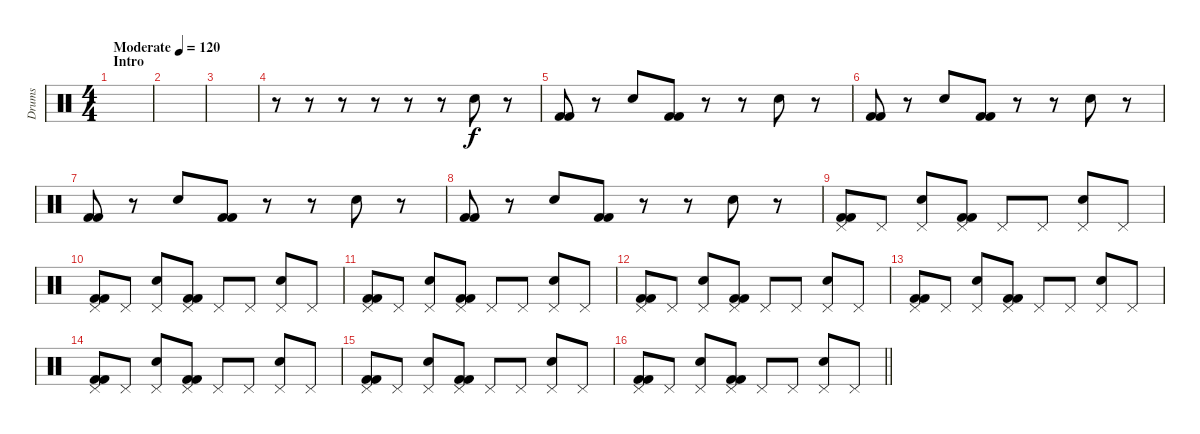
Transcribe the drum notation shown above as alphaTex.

\track ("Drums" "Drums") {instrument percussion}
\staff {score}
\articulation defaults
\ts (4 4)
\section ("" "Intro")
\tempo (120 "Moderate")
\clef neutral
\ks c
|
|
|
r.8 r.8 r.8 r.8 r.8 r.8 "Electric Snare (hit)".8 r.8 |
("Kick (hit) 2" "Kick (hit) 2").8 r.8 "Electric Snare (hit)".8 ("Kick (hit) 2" "Kick (hit) 2").8 r.8 r.8 "Electric Snare (hit)".8 r.8 |
("Kick (hit) 2" "Kick (hit) 2").8 r.8 "Electric Snare (hit)".8 ("Kick (hit) 2" "Kick (hit) 2").8 r.8 r.8 "Electric Snare (hit)".8 r.8 |
("Kick (hit) 2" "Kick (hit) 2").8 r.8 "Electric Snare (hit)".8 ("Kick (hit) 2" "Kick (hit) 2").8 r.8 r.8 "Electric Snare (hit)".8 r.8 |
("Kick (hit) 2" "Kick (hit) 2").8 r.8 "Electric Snare (hit)".8 ("Kick (hit) 2" "Kick (hit) 2").8 r.8 r.8 "Electric Snare (hit)".8 r.8 |
("Pedal Hi-Hat (hit)" "Kick (hit) 2" "Kick (hit) 2").8 "Pedal Hi-Hat (hit)".8 ("Electric Snare (hit)" "Pedal Hi-Hat (hit)").8 ("Pedal Hi-Hat (hit)" "Kick (hit) 2" "Kick (hit) 2").8 "Pedal Hi-Hat (hit)".8 "Pedal Hi-Hat (hit)".8 ("Electric Snare (hit)" "Pedal Hi-Hat (hit)").8 "Pedal Hi-Hat (hit)".8 |
("Pedal Hi-Hat (hit)" "Kick (hit) 2" "Kick (hit) 2").8 "Pedal Hi-Hat (hit)".8 ("Electric Snare (hit)" "Pedal Hi-Hat (hit)").8 ("Pedal Hi-Hat (hit)" "Kick (hit) 2" "Kick (hit) 2").8 "Pedal Hi-Hat (hit)".8 "Pedal Hi-Hat (hit)".8 ("Electric Snare (hit)" "Pedal Hi-Hat (hit)").8 "Pedal Hi-Hat (hit)".8 |
("Pedal Hi-Hat (hit)" "Kick (hit) 2" "Kick (hit) 2").8 "Pedal Hi-Hat (hit)".8 ("Electric Snare (hit)" "Pedal Hi-Hat (hit)").8 ("Pedal Hi-Hat (hit)" "Kick (hit) 2" "Kick (hit) 2").8 "Pedal Hi-Hat (hit)".8 "Pedal Hi-Hat (hit)".8 ("Electric Snare (hit)" "Pedal Hi-Hat (hit)").8 "Pedal Hi-Hat (hit)".8 |
("Pedal Hi-Hat (hit)" "Kick (hit) 2" "Kick (hit) 2").8 "Pedal Hi-Hat (hit)".8 ("Electric Snare (hit)" "Pedal Hi-Hat (hit)").8 ("Pedal Hi-Hat (hit)" "Kick (hit) 2" "Kick (hit) 2").8 "Pedal Hi-Hat (hit)".8 "Pedal Hi-Hat (hit)".8 ("Electric Snare (hit)" "Pedal Hi-Hat (hit)").8 "Pedal Hi-Hat (hit)".8 |
("Pedal Hi-Hat (hit)" "Kick (hit) 2" "Kick (hit) 2").8 "Pedal Hi-Hat (hit)".8 ("Electric Snare (hit)" "Pedal Hi-Hat (hit)").8 ("Pedal Hi-Hat (hit)" "Kick (hit) 2" "Kick (hit) 2").8 "Pedal Hi-Hat (hit)".8 "Pedal Hi-Hat (hit)".8 ("Electric Snare (hit)" "Pedal Hi-Hat (hit)").8 "Pedal Hi-Hat (hit)".8 |
("Pedal Hi-Hat (hit)" "Kick (hit) 2" "Kick (hit) 2").8 "Pedal Hi-Hat (hit)".8 ("Electric Snare (hit)" "Pedal Hi-Hat (hit)").8 ("Pedal Hi-Hat (hit)" "Kick (hit) 2" "Kick (hit) 2").8 "Pedal Hi-Hat (hit)".8 "Pedal Hi-Hat (hit)".8 ("Electric Snare (hit)" "Pedal Hi-Hat (hit)").8 "Pedal Hi-Hat (hit)".8 |
("Pedal Hi-Hat (hit)" "Kick (hit) 2" "Kick (hit) 2").8 "Pedal Hi-Hat (hit)".8 ("Electric Snare (hit)" "Pedal Hi-Hat (hit)").8 ("Pedal Hi-Hat (hit)" "Kick (hit) 2" "Kick (hit) 2").8 "Pedal Hi-Hat (hit)".8 "Pedal Hi-Hat (hit)".8 ("Electric Snare (hit)" "Pedal Hi-Hat (hit)").8 "Pedal Hi-Hat (hit)".8 |
\barLineRight lightlight
("Pedal Hi-Hat (hit)" "Kick (hit) 2" "Kick (hit) 2").8 "Pedal Hi-Hat (hit)".8 ("Electric Snare (hit)" "Pedal Hi-Hat (hit)").8 ("Pedal Hi-Hat (hit)" "Kick (hit) 2" "Kick (hit) 2").8 "Pedal Hi-Hat (hit)".8 "Pedal Hi-Hat (hit)".8 ("Electric Snare (hit)" "Pedal Hi-Hat (hit)").8 "Pedal Hi-Hat (hit)".8
